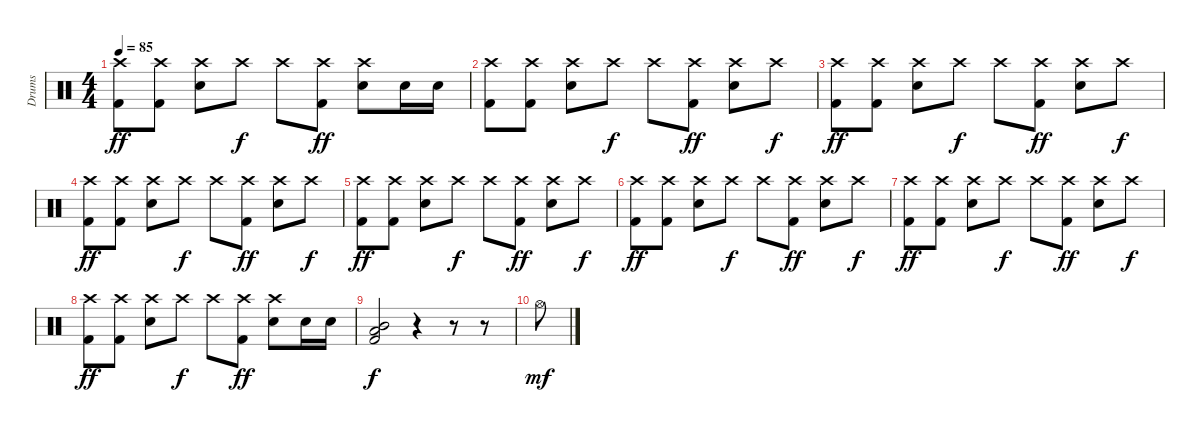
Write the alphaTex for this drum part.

\track ("Drums" "Drums") {instrument percussion}
\staff {score}
\articulation defaults
\ts (4 4)
\tempo 85
\clef neutral
\ks c
("Crash high (hit)" "Kick (hit) 2").8{dy ff} ("Crash high (hit)" "Kick (hit) 2").8 ("Crash high (hit)" "Electric Snare (hit)").8 "Crash high (hit)".8{dy f} "Crash high (hit)".8 ("Crash high (hit)" "Kick (hit) 2").8{dy ff} ("Crash high (hit)" "Electric Snare (hit)").8 "Electric Snare (hit)".16 "Electric Snare (hit)".16 |
("Crash high (hit)" "Kick (hit) 2").8 ("Crash high (hit)" "Kick (hit) 2").8 ("Crash high (hit)" "Electric Snare (hit)").8 "Crash high (hit)".8{dy f} "Crash high (hit)".8 ("Crash high (hit)" "Kick (hit) 2").8{dy ff} ("Crash high (hit)" "Electric Snare (hit)").8 "Crash high (hit)".8{dy f} |
("Crash high (hit)" "Kick (hit) 2").8{dy ff} ("Crash high (hit)" "Kick (hit) 2").8 ("Crash high (hit)" "Electric Snare (hit)").8 "Crash high (hit)".8{dy f} "Crash high (hit)".8 ("Crash high (hit)" "Kick (hit) 2").8{dy ff} ("Crash high (hit)" "Electric Snare (hit)").8 "Crash high (hit)".8{dy f} |
("Crash high (hit)" "Kick (hit) 2").8{dy ff} ("Crash high (hit)" "Kick (hit) 2").8 ("Crash high (hit)" "Electric Snare (hit)").8 "Crash high (hit)".8{dy f} "Crash high (hit)".8 ("Crash high (hit)" "Kick (hit) 2").8{dy ff} ("Crash high (hit)" "Electric Snare (hit)").8 "Crash high (hit)".8{dy f} |
("Crash high (hit)" "Kick (hit) 2").8{dy ff} ("Crash high (hit)" "Kick (hit) 2").8 ("Crash high (hit)" "Electric Snare (hit)").8 "Crash high (hit)".8{dy f} "Crash high (hit)".8 ("Crash high (hit)" "Kick (hit) 2").8{dy ff} ("Crash high (hit)" "Electric Snare (hit)").8 "Crash high (hit)".8{dy f} |
("Crash high (hit)" "Kick (hit) 2").8{dy ff} ("Crash high (hit)" "Kick (hit) 2").8 ("Crash high (hit)" "Electric Snare (hit)").8 "Crash high (hit)".8{dy f} "Crash high (hit)".8 ("Crash high (hit)" "Kick (hit) 2").8{dy ff} ("Crash high (hit)" "Electric Snare (hit)").8 "Crash high (hit)".8{dy f} |
("Crash high (hit)" "Kick (hit) 2").8{dy ff} ("Crash high (hit)" "Kick (hit) 2").8 ("Crash high (hit)" "Electric Snare (hit)").8 "Crash high (hit)".8{dy f} "Crash high (hit)".8 ("Crash high (hit)" "Kick (hit) 2").8{dy ff} ("Crash high (hit)" "Electric Snare (hit)").8 "Crash high (hit)".8{dy f} |
("Crash high (hit)" "Kick (hit) 2").8{dy ff} ("Crash high (hit)" "Kick (hit) 2").8 ("Crash high (hit)" "Electric Snare (hit)").8 "Crash high (hit)".8{dy f} "Crash high (hit)".8 ("Crash high (hit)" "Kick (hit) 2").8{dy ff} ("Crash high (hit)" "Electric Snare (hit)").8 "Electric Snare (hit)".16 "Electric Snare (hit)".16 |
("Mid Tom (hit)" "Low Tom (hit)" "Kick (hit) 2").2{dy f} r.4 r.8 r.8 |
"Hi-Hat (open)".8{dy mf}
